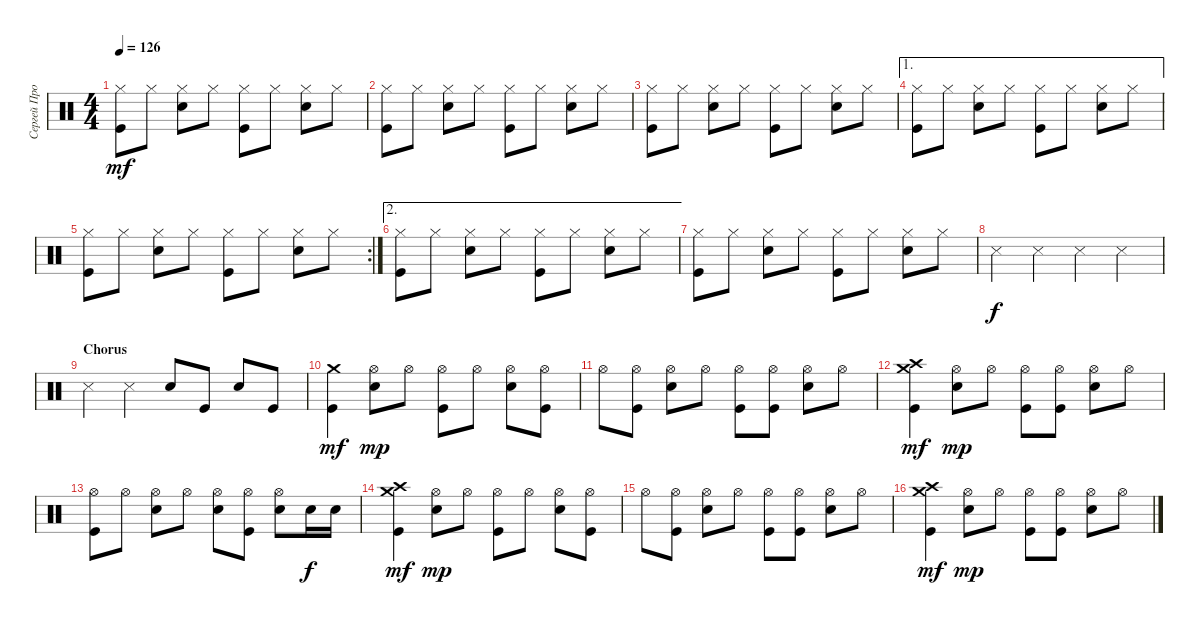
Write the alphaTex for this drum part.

\track ("Сергей Прокофьев (Барабаны)" "Сергей Про") {instrument percussion}
\staff {score}
\articulation defaults
\ts (4 4)
\tempo 126
\clef neutral
\ks c
("Hi-Hat (closed)" "Kick (hit)").8{dy mf} "Hi-Hat (closed)".8 ("Hi-Hat (closed)" "Electric Snare (hit)").8 "Hi-Hat (closed)".8 ("Hi-Hat (closed)" "Kick (hit)").8 "Hi-Hat (closed)".8 ("Hi-Hat (closed)" "Electric Snare (hit)").8 "Hi-Hat (closed)".8 |
("Hi-Hat (closed)" "Kick (hit)").8 "Hi-Hat (closed)".8 ("Hi-Hat (closed)" "Electric Snare (hit)").8 "Hi-Hat (closed)".8 ("Hi-Hat (closed)" "Kick (hit)").8 "Hi-Hat (closed)".8 ("Hi-Hat (closed)" "Electric Snare (hit)").8 "Hi-Hat (closed)".8 |
("Hi-Hat (closed)" "Kick (hit)").8 "Hi-Hat (closed)".8 ("Hi-Hat (closed)" "Electric Snare (hit)").8 "Hi-Hat (closed)".8 ("Hi-Hat (closed)" "Kick (hit)").8 "Hi-Hat (closed)".8 ("Hi-Hat (closed)" "Electric Snare (hit)").8 "Hi-Hat (closed)".8 |
\ae 1
("Hi-Hat (closed)" "Kick (hit)").8 "Hi-Hat (closed)".8 ("Hi-Hat (closed)" "Electric Snare (hit)").8 "Hi-Hat (closed)".8 ("Hi-Hat (closed)" "Kick (hit)").8 "Hi-Hat (closed)".8 ("Hi-Hat (closed)" "Electric Snare (hit)").8 "Hi-Hat (closed)".8 |
\rc 2
("Hi-Hat (closed)" "Kick (hit)").8 "Hi-Hat (closed)".8 ("Hi-Hat (closed)" "Electric Snare (hit)").8 "Hi-Hat (closed)".8 ("Hi-Hat (closed)" "Kick (hit)").8 "Hi-Hat (closed)".8 ("Hi-Hat (closed)" "Electric Snare (hit)").8 "Hi-Hat (closed)".8 |
\ae 2
("Hi-Hat (closed)" "Kick (hit)").8 "Hi-Hat (closed)".8 ("Hi-Hat (closed)" "Electric Snare (hit)").8 "Hi-Hat (closed)".8 ("Hi-Hat (closed)" "Kick (hit)").8 "Hi-Hat (closed)".8 ("Hi-Hat (closed)" "Electric Snare (hit)").8 "Hi-Hat (closed)".8 |
("Hi-Hat (closed)" "Kick (hit)").8 "Hi-Hat (closed)".8 ("Hi-Hat (closed)" "Electric Snare (hit)").8 "Hi-Hat (closed)".8 ("Hi-Hat (closed)" "Kick (hit)").8 "Hi-Hat (closed)".8 ("Hi-Hat (closed)" "Electric Snare (hit)").8 "Hi-Hat (closed)".8 |
"Snare (side stick) 3".4{dy f} "Snare (side stick) 3".4 "Snare (side stick) 3".4 "Snare (side stick) 3".4 |
\section ("" "Chorus")
"Snare (side stick) 3".4 "Snare (side stick) 3".4 "Electric Snare (hit)".8 "Kick (hit)".8 "Electric Snare (hit)".8 "Kick (hit)".8 |
("Crash medium (hit)" "Kick (hit)").4{dy mf} ("Hi-Hat (open)" "Electric Snare (hit)").8{dy mp} "Hi-Hat (open)".8 ("Hi-Hat (open)" "Kick (hit)").8 "Hi-Hat (open)".8 ("Hi-Hat (open)" "Electric Snare (hit)").8 ("Hi-Hat (open)" "Kick (hit)").8 |
"Hi-Hat (open)".8 ("Hi-Hat (open)" "Kick (hit)").8 ("Hi-Hat (open)" "Electric Snare (hit)").8 "Hi-Hat (open)".8 ("Hi-Hat (open)" "Kick (hit)").8 ("Hi-Hat (open)" "Kick (hit)").8 ("Hi-Hat (open)" "Electric Snare (hit)").8 "Hi-Hat (open)".8 |
("Crash high (hit)" "Crash medium (hit)" "Kick (hit)").4{dy mf} ("Hi-Hat (open)" "Electric Snare (hit)").8{dy mp} "Hi-Hat (open)".8 ("Hi-Hat (open)" "Kick (hit)").8 ("Hi-Hat (open)" "Kick (hit)").8 ("Hi-Hat (open)" "Electric Snare (hit)").8 "Hi-Hat (open)".8 |
("Hi-Hat (open)" "Kick (hit)").8 "Hi-Hat (open)".8 ("Hi-Hat (open)" "Electric Snare (hit)").8 "Hi-Hat (open)".8 ("Hi-Hat (open)" "Electric Snare (hit)").8 ("Hi-Hat (open)" "Kick (hit)").8 ("Hi-Hat (open)" "Electric Snare (hit)").8 "Electric Snare (hit)".16{dy f} "Electric Snare (hit)".16 |
("Crash high (hit)" "Crash medium (hit)" "Kick (hit)").4{dy mf} ("Hi-Hat (open)" "Electric Snare (hit)").8{dy mp} "Hi-Hat (open)".8 ("Hi-Hat (open)" "Kick (hit)").8 "Hi-Hat (open)".8 ("Hi-Hat (open)" "Electric Snare (hit)").8 ("Hi-Hat (open)" "Kick (hit)").8 |
"Hi-Hat (open)".8 ("Hi-Hat (open)" "Kick (hit)").8 ("Hi-Hat (open)" "Electric Snare (hit)").8 "Hi-Hat (open)".8 ("Hi-Hat (open)" "Kick (hit)").8 ("Hi-Hat (open)" "Kick (hit)").8 ("Hi-Hat (open)" "Electric Snare (hit)").8 "Hi-Hat (open)".8 |
("Crash high (hit)" "Crash medium (hit)" "Kick (hit)").4{dy mf} ("Hi-Hat (open)" "Electric Snare (hit)").8{dy mp} "Hi-Hat (open)".8 ("Hi-Hat (open)" "Kick (hit)").8 ("Hi-Hat (open)" "Kick (hit)").8 ("Hi-Hat (open)" "Electric Snare (hit)").8 "Hi-Hat (open)".8
